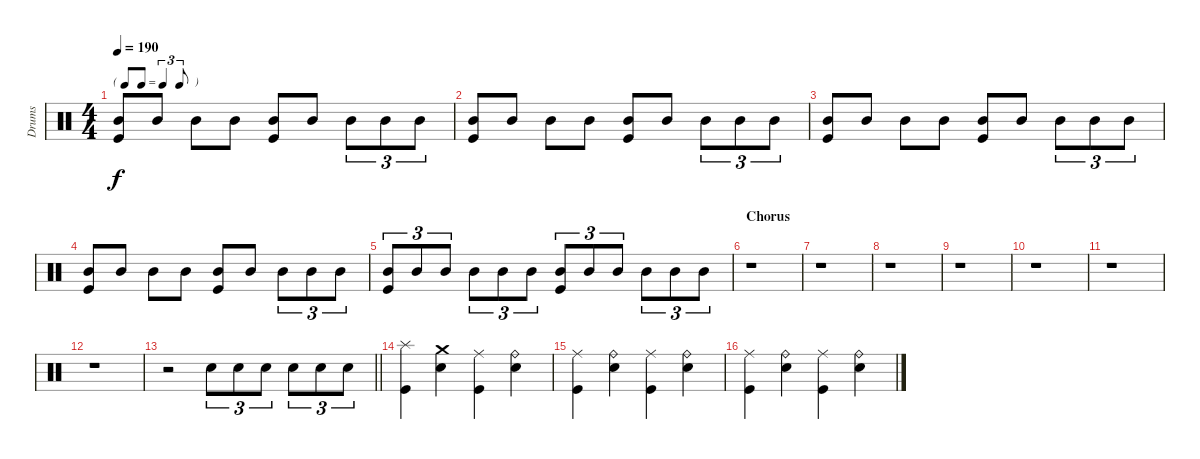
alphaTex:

\track ("Drums" "Drums") {instrument percussion}
\staff {score}
\articulation defaults
\ts (4 4)
\tf triplet8th
\tempo 190
\clef neutral
\ks c
("Mid Tom (hit)" "Kick (hit)").8{dy f} "Mid Tom (hit)".8 "Mid Tom (hit)".8 "Mid Tom (hit)".8 ("Mid Tom (hit)" "Kick (hit)").8 "Mid Tom (hit)".8 "Mid Tom (hit)".8{tu (3 2)} "Mid Tom (hit)".8{tu (3 2)} "Mid Tom (hit)".8{tu (3 2)} |
("Mid Tom (hit)" "Kick (hit)").8 "Mid Tom (hit)".8 "Mid Tom (hit)".8 "Mid Tom (hit)".8 ("Mid Tom (hit)" "Kick (hit)").8 "Mid Tom (hit)".8 "Mid Tom (hit)".8{tu (3 2)} "Mid Tom (hit)".8{tu (3 2)} "Mid Tom (hit)".8{tu (3 2)} |
("Mid Tom (hit)" "Kick (hit)").8 "Mid Tom (hit)".8 "Mid Tom (hit)".8 "Mid Tom (hit)".8 ("Mid Tom (hit)" "Kick (hit)").8 "Mid Tom (hit)".8 "Mid Tom (hit)".8{tu (3 2)} "Mid Tom (hit)".8{tu (3 2)} "Mid Tom (hit)".8{tu (3 2)} |
("Mid Tom (hit)" "Kick (hit)").8 "Mid Tom (hit)".8 "Mid Tom (hit)".8 "Mid Tom (hit)".8 ("Mid Tom (hit)" "Kick (hit)").8 "Mid Tom (hit)".8 "Mid Tom (hit)".8{tu (3 2)} "Mid Tom (hit)".8{tu (3 2)} "Mid Tom (hit)".8{tu (3 2)} |
("Mid Tom (hit)" "Kick (hit)").8{tu (3 2)} "Mid Tom (hit)".8{tu (3 2)} "Mid Tom (hit)".8{tu (3 2)} "Mid Tom (hit)".8{tu (3 2)} "Mid Tom (hit)".8{tu (3 2)} "Mid Tom (hit)".8{tu (3 2)} ("Mid Tom (hit)" "Kick (hit)").8{tu (3 2)} "Mid Tom (hit)".8{tu (3 2)} "Mid Tom (hit)".8{tu (3 2)} "Mid Tom (hit)".8{tu (3 2)} "Mid Tom (hit)".8{tu (3 2)} "Mid Tom (hit)".8{tu (3 2)} |
\section ("" "Chorus")
r.1 |
r.1 |
r.1 |
r.1 |
r.1 |
r.1 |
r.1 |
\barLineRight lightlight
r.2 "Electric Snare (hit)".8{tu (3 2)} "Electric Snare (hit)".8{tu (3 2)} "Electric Snare (hit)".8{tu (3 2)} "Electric Snare (hit)".8{tu (3 2)} "Electric Snare (hit)".8{tu (3 2)} "Electric Snare (hit)".8{tu (3 2)} |
("Splash (hit)" "Kick (hit)").4 ("Crash medium (hit)" "Electric Snare (hit)").4 ("Ride (middle)" "Kick (hit)").4 ("Ride (bell)" "Electric Snare (hit)").4 |
("Ride (middle)" "Kick (hit)").4 ("Ride (bell)" "Electric Snare (hit)").4 ("Ride (middle)" "Kick (hit)").4 ("Ride (bell)" "Electric Snare (hit)").4 |
("Ride (middle)" "Kick (hit)").4 ("Ride (bell)" "Electric Snare (hit)").4 ("Ride (middle)" "Kick (hit)").4 ("Ride (bell)" "Electric Snare (hit)").4
